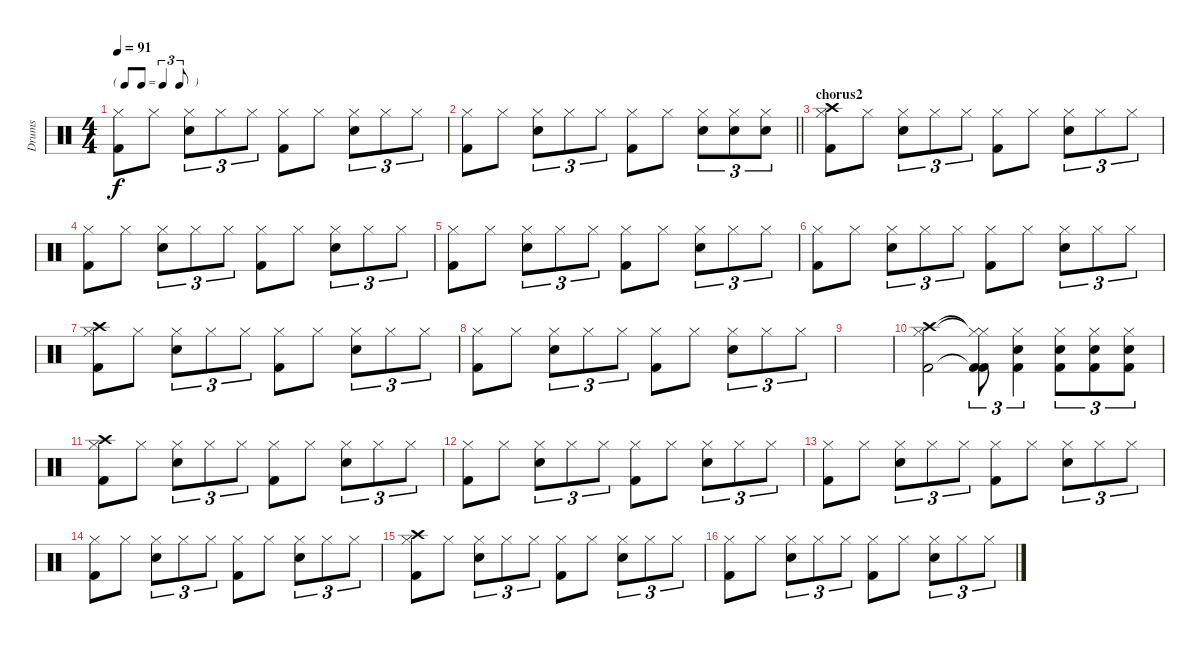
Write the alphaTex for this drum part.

\track ("Drums" "Drums") {instrument percussion}
\staff {score}
\articulation defaults
\ts (4 4)
\tf triplet8th
\tempo 91
\clef neutral
\ks c
("Hi-Hat (closed)" "Kick (hit) 2").8{dy f} "Hi-Hat (closed)".8 ("Hi-Hat (closed)" "Snare (hit) 2").8{tu (3 2)} "Hi-Hat (closed)".8{tu (3 2)} "Hi-Hat (closed)".8{tu (3 2)} ("Hi-Hat (closed)" "Kick (hit) 2").8 "Hi-Hat (closed)".8 ("Hi-Hat (closed)" "Snare (hit) 2").8{tu (3 2)} "Hi-Hat (closed)".8{tu (3 2)} "Hi-Hat (closed)".8{tu (3 2)} |
\barLineRight lightlight
("Hi-Hat (closed)" "Kick (hit) 2").8 "Hi-Hat (closed)".8 ("Hi-Hat (closed)" "Snare (hit) 2").8{tu (3 2)} "Hi-Hat (closed)".8{tu (3 2)} "Hi-Hat (closed)".8{tu (3 2)} ("Hi-Hat (closed)" "Kick (hit) 2").8 "Hi-Hat (closed)".8 ("Hi-Hat (closed)" "Snare (hit) 2").8{tu (3 2)} ("Hi-Hat (closed)" "Snare (hit) 2").8{tu (3 2)} ("Hi-Hat (closed)" "Snare (hit) 2").8{tu (3 2)} |
\section ("" "chorus2")
("Crash high (hit)" "Hi-Hat (closed)" "Kick (hit) 2").8 "Hi-Hat (closed)".8 ("Hi-Hat (closed)" "Snare (hit) 2").8{tu (3 2)} "Hi-Hat (closed)".8{tu (3 2)} "Hi-Hat (closed)".8{tu (3 2)} ("Hi-Hat (closed)" "Kick (hit) 2").8 "Hi-Hat (closed)".8 ("Hi-Hat (closed)" "Snare (hit) 2").8{tu (3 2)} "Hi-Hat (closed)".8{tu (3 2)} "Hi-Hat (closed)".8{tu (3 2)} |
("Hi-Hat (closed)" "Kick (hit) 2").8 "Hi-Hat (closed)".8 ("Hi-Hat (closed)" "Snare (hit) 2").8{tu (3 2)} "Hi-Hat (closed)".8{tu (3 2)} "Hi-Hat (closed)".8{tu (3 2)} ("Hi-Hat (closed)" "Kick (hit) 2").8 "Hi-Hat (closed)".8 ("Hi-Hat (closed)" "Snare (hit) 2").8{tu (3 2)} "Hi-Hat (closed)".8{tu (3 2)} "Hi-Hat (closed)".8{tu (3 2)} |
("Hi-Hat (closed)" "Kick (hit) 2").8 "Hi-Hat (closed)".8 ("Hi-Hat (closed)" "Snare (hit) 2").8{tu (3 2)} "Hi-Hat (closed)".8{tu (3 2)} "Hi-Hat (closed)".8{tu (3 2)} ("Hi-Hat (closed)" "Kick (hit) 2").8 "Hi-Hat (closed)".8 ("Hi-Hat (closed)" "Snare (hit) 2").8{tu (3 2)} "Hi-Hat (closed)".8{tu (3 2)} "Hi-Hat (closed)".8{tu (3 2)} |
("Hi-Hat (closed)" "Kick (hit) 2").8 "Hi-Hat (closed)".8 ("Hi-Hat (closed)" "Snare (hit) 2").8{tu (3 2)} "Hi-Hat (closed)".8{tu (3 2)} "Hi-Hat (closed)".8{tu (3 2)} ("Hi-Hat (closed)" "Kick (hit) 2").8 "Hi-Hat (closed)".8 ("Hi-Hat (closed)" "Snare (hit) 2").8{tu (3 2)} "Hi-Hat (closed)".8{tu (3 2)} "Hi-Hat (closed)".8{tu (3 2)} |
("Crash high (hit)" "Hi-Hat (closed)" "Kick (hit) 2").8 "Hi-Hat (closed)".8 ("Hi-Hat (closed)" "Snare (hit) 2").8{tu (3 2)} "Hi-Hat (closed)".8{tu (3 2)} "Hi-Hat (closed)".8{tu (3 2)} ("Hi-Hat (closed)" "Kick (hit) 2").8 "Hi-Hat (closed)".8 ("Hi-Hat (closed)" "Snare (hit) 2").8{tu (3 2)} "Hi-Hat (closed)".8{tu (3 2)} "Hi-Hat (closed)".8{tu (3 2)} |
("Hi-Hat (closed)" "Kick (hit) 2").8 "Hi-Hat (closed)".8 ("Hi-Hat (closed)" "Snare (hit) 2").8{tu (3 2)} "Hi-Hat (closed)".8{tu (3 2)} "Hi-Hat (closed)".8{tu (3 2)} ("Hi-Hat (closed)" "Kick (hit) 2").8 "Hi-Hat (closed)".8 ("Hi-Hat (closed)" "Snare (hit) 2").8{tu (3 2)} "Hi-Hat (closed)".8{tu (3 2)} "Hi-Hat (closed)".8{tu (3 2)} |
|
("Crash high (hit)" "Hi-Hat (closed)" "Kick (hit) 2").2 ("Hi-Hat (closed)"{t} "Hi-Hat (closed)"{t} "Kick (hit) 2"{t} "Kick (hit) 2").8{tu (3 2)} ("Hi-Hat (closed)" "Snare (hit) 2" "Kick (hit) 2").4{tu (3 2)} ("Hi-Hat (closed)" "Snare (hit) 2" "Kick (hit) 2").8{tu (3 2)} ("Hi-Hat (closed)" "Snare (hit) 2" "Kick (hit) 2").8{tu (3 2)} ("Hi-Hat (closed)" "Snare (hit) 2" "Kick (hit) 2").8{tu (3 2)} |
("Crash high (hit)" "Hi-Hat (closed)" "Kick (hit) 2").8 "Hi-Hat (closed)".8 ("Hi-Hat (closed)" "Snare (hit) 2").8{tu (3 2)} "Hi-Hat (closed)".8{tu (3 2)} "Hi-Hat (closed)".8{tu (3 2)} ("Hi-Hat (closed)" "Kick (hit) 2").8 "Hi-Hat (closed)".8 ("Hi-Hat (closed)" "Snare (hit) 2").8{tu (3 2)} "Hi-Hat (closed)".8{tu (3 2)} "Hi-Hat (closed)".8{tu (3 2)} |
("Hi-Hat (closed)" "Kick (hit) 2").8 "Hi-Hat (closed)".8 ("Hi-Hat (closed)" "Snare (hit) 2").8{tu (3 2)} "Hi-Hat (closed)".8{tu (3 2)} "Hi-Hat (closed)".8{tu (3 2)} ("Hi-Hat (closed)" "Kick (hit) 2").8 "Hi-Hat (closed)".8 ("Hi-Hat (closed)" "Snare (hit) 2").8{tu (3 2)} "Hi-Hat (closed)".8{tu (3 2)} "Hi-Hat (closed)".8{tu (3 2)} |
("Hi-Hat (closed)" "Kick (hit) 2").8 "Hi-Hat (closed)".8 ("Hi-Hat (closed)" "Snare (hit) 2").8{tu (3 2)} "Hi-Hat (closed)".8{tu (3 2)} "Hi-Hat (closed)".8{tu (3 2)} ("Hi-Hat (closed)" "Kick (hit) 2").8 "Hi-Hat (closed)".8 ("Hi-Hat (closed)" "Snare (hit) 2").8{tu (3 2)} "Hi-Hat (closed)".8{tu (3 2)} "Hi-Hat (closed)".8{tu (3 2)} |
("Hi-Hat (closed)" "Kick (hit) 2").8 "Hi-Hat (closed)".8 ("Hi-Hat (closed)" "Snare (hit) 2").8{tu (3 2)} "Hi-Hat (closed)".8{tu (3 2)} "Hi-Hat (closed)".8{tu (3 2)} ("Hi-Hat (closed)" "Kick (hit) 2").8 "Hi-Hat (closed)".8 ("Hi-Hat (closed)" "Snare (hit) 2").8{tu (3 2)} "Hi-Hat (closed)".8{tu (3 2)} "Hi-Hat (closed)".8{tu (3 2)} |
("Crash high (hit)" "Hi-Hat (closed)" "Kick (hit) 2").8 "Hi-Hat (closed)".8 ("Hi-Hat (closed)" "Snare (hit) 2").8{tu (3 2)} "Hi-Hat (closed)".8{tu (3 2)} "Hi-Hat (closed)".8{tu (3 2)} ("Hi-Hat (closed)" "Kick (hit) 2").8 "Hi-Hat (closed)".8 ("Hi-Hat (closed)" "Snare (hit) 2").8{tu (3 2)} "Hi-Hat (closed)".8{tu (3 2)} "Hi-Hat (closed)".8{tu (3 2)} |
("Hi-Hat (closed)" "Kick (hit) 2").8 "Hi-Hat (closed)".8 ("Hi-Hat (closed)" "Snare (hit) 2").8{tu (3 2)} "Hi-Hat (closed)".8{tu (3 2)} "Hi-Hat (closed)".8{tu (3 2)} ("Hi-Hat (closed)" "Kick (hit) 2").8 "Hi-Hat (closed)".8 ("Hi-Hat (closed)" "Snare (hit) 2").8{tu (3 2)} "Hi-Hat (closed)".8{tu (3 2)} "Hi-Hat (closed)".8{tu (3 2)}
